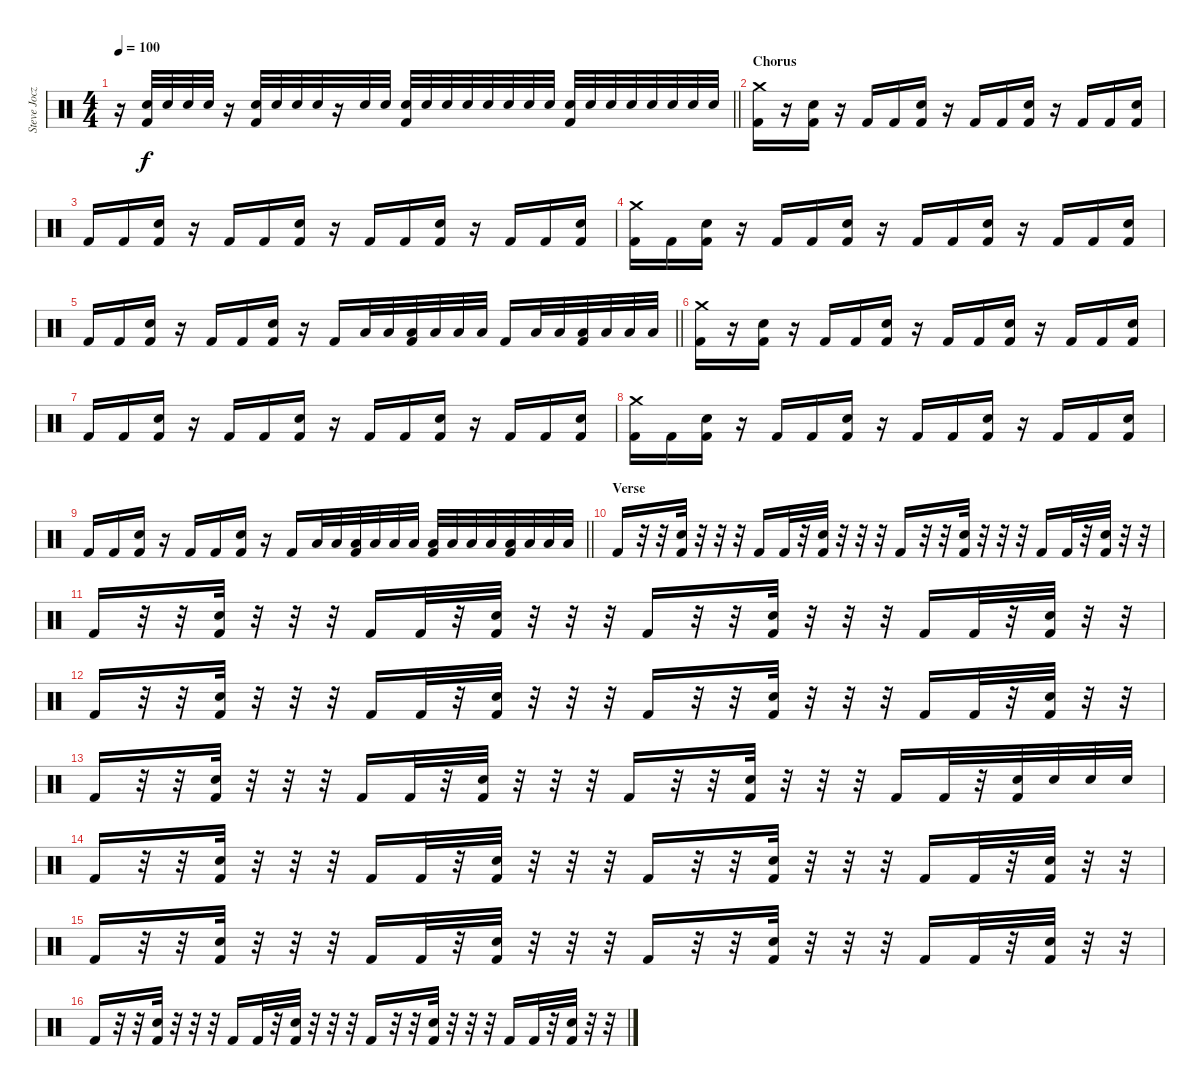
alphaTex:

\track ("Steve Jocz" "Steve Jocz") {instrument percussion}
\staff {score}
\articulation defaults
\ts (4 4)
\tempo 100
\clef neutral
\barLineRight lightlight
\ks c
r.16{dy f} ("Snare (hit) 2" "Kick (hit) 2").32 "Snare (hit) 2".32 "Snare (hit) 2".32 "Snare (hit) 2".32 r.16 ("Snare (hit) 2" "Kick (hit) 2").32 "Snare (hit) 2".32 "Snare (hit) 2".32 "Snare (hit) 2".32 r.16 "Snare (hit) 2".32 "Snare (hit) 2".32 ("Snare (hit) 2" "Kick (hit) 2").32 "Snare (hit) 2".32 "Snare (hit) 2".32 "Snare (hit) 2".32 "Snare (hit) 2".32 "Snare (hit) 2".32 "Snare (hit) 2".32 "Snare (hit) 2".32 ("Snare (hit) 2" "Kick (hit) 2").32 "Snare (hit) 2".32 "Snare (hit) 2".32 "Snare (hit) 2".32 "Snare (hit) 2".32 "Snare (hit) 2".32 "Snare (hit) 2".32 "Snare (hit) 2".32 |
\section ("" "Chorus")
("Crash medium (hit)" "Kick (hit) 2").16 r.16 ("Snare (hit) 2" "Kick (hit) 2").16 r.16 "Kick (hit) 2".16 "Kick (hit) 2".16 ("Snare (hit) 2" "Kick (hit) 2").16 r.16 "Kick (hit) 2".16 "Kick (hit) 2".16 ("Snare (hit) 2" "Kick (hit) 2").16 r.16 "Kick (hit) 2".16 "Kick (hit) 2".16 ("Snare (hit) 2" "Kick (hit) 2").16 |
"Kick (hit) 2".16 "Kick (hit) 2".16 ("Snare (hit) 2" "Kick (hit) 2").16 r.16 "Kick (hit) 2".16 "Kick (hit) 2".16 ("Snare (hit) 2" "Kick (hit) 2").16 r.16 "Kick (hit) 2".16 "Kick (hit) 2".16 ("Snare (hit) 2" "Kick (hit) 2").16 r.16 "Kick (hit) 2".16 "Kick (hit) 2".16 ("Snare (hit) 2" "Kick (hit) 2").16 |
("Crash medium (hit)" "Kick (hit) 2").16 "Kick (hit) 2".16 ("Snare (hit) 2" "Kick (hit) 2").16 r.16 "Kick (hit) 2".16 "Kick (hit) 2".16 ("Snare (hit) 2" "Kick (hit) 2").16 r.16 "Kick (hit) 2".16 "Kick (hit) 2".16 ("Snare (hit) 2" "Kick (hit) 2").16 r.16 "Kick (hit) 2".16 "Kick (hit) 2".16 ("Snare (hit) 2" "Kick (hit) 2").16 |
\barLineRight lightlight "Kick (hit) 2".16 "Kick (hit) 2".16
("Snare (hit) 2" "Kick (hit) 2").16 r.16 "Kick (hit) 2".16 "Kick (hit) 2".16 ("Snare (hit) 2" "Kick (hit) 2").16 r.16 "Kick (hit) 2".16 "Low Tom (hit)".32 "Low Tom (hit)".32 ("Low Tom (hit)" "Kick (hit) 2").32 "Low Tom (hit)".32 "Low Tom (hit)".32 "Low Tom (hit)".32 "Kick (hit) 2".16 "Low Tom (hit)".32 "Low Tom (hit)".32 ("Low Tom (hit)" "Kick (hit) 2").32 "Low Tom (hit)".32 "Low Tom (hit)".32 "Low Tom (hit)".32 |
("Crash medium (hit)" "Kick (hit) 2").16 r.16 ("Snare (hit) 2" "Kick (hit) 2").16 r.16 "Kick (hit) 2".16 "Kick (hit) 2".16 ("Snare (hit) 2" "Kick (hit) 2").16 r.16 "Kick (hit) 2".16 "Kick (hit) 2".16 ("Snare (hit) 2" "Kick (hit) 2").16 r.16 "Kick (hit) 2".16 "Kick (hit) 2".16 ("Snare (hit) 2" "Kick (hit) 2").16 |
"Kick (hit) 2".16 "Kick (hit) 2".16 ("Snare (hit) 2" "Kick (hit) 2").16 r.16 "Kick (hit) 2".16 "Kick (hit) 2".16 ("Snare (hit) 2" "Kick (hit) 2").16 r.16 "Kick (hit) 2".16 "Kick (hit) 2".16 ("Snare (hit) 2" "Kick (hit) 2").16 r.16 "Kick (hit) 2".16 "Kick (hit) 2".16 ("Snare (hit) 2" "Kick (hit) 2").16 |
("Crash medium (hit)" "Kick (hit) 2").16 "Kick (hit) 2".16 ("Snare (hit) 2" "Kick (hit) 2").16 r.16 "Kick (hit) 2".16 "Kick (hit) 2".16 ("Snare (hit) 2" "Kick (hit) 2").16 r.16 "Kick (hit) 2".16 "Kick (hit) 2".16 ("Snare (hit) 2" "Kick (hit) 2").16 r.16 "Kick (hit) 2".16 "Kick (hit) 2".16 ("Snare (hit) 2" "Kick (hit) 2").16 |
\barLineRight lightlight "Kick (hit) 2".16 "Kick (hit) 2".16
("Snare (hit) 2" "Kick (hit) 2").16 r.16 "Kick (hit) 2".16 "Kick (hit) 2".16 ("Snare (hit) 2" "Kick (hit) 2").16 r.16 "Kick (hit) 2".16 "Low Tom (hit)".32 "Low Tom (hit)".32 ("Low Tom (hit)" "Kick (hit) 2").32 "Low Tom (hit)".32 "Low Tom (hit)".32 "Low Tom (hit)".32 ("Low Floor Tom (hit)" "Kick (hit) 2").32 "Low Floor Tom (hit)".32 "Low Floor Tom (hit)".32 "Low Floor Tom (hit)".32 ("Low Floor Tom (hit)" "Kick (hit) 2").32 "Low Floor Tom (hit)".32 "Low Floor Tom (hit)".32 "Low Floor Tom (hit)".32 |
\section ("" "Verse")
"Kick (hit) 2".16 r.32 r.32 ("Snare (hit) 2" "Kick (hit) 2").32 r.32 r.32 r.32 "Kick (hit) 2".16 "Kick (hit) 2".32 r.32 ("Snare (hit) 2" "Kick (hit) 2").32 r.32 r.32 r.32 "Kick (hit) 2".16 r.32 r.32 ("Snare (hit) 2" "Kick (hit) 2").32 r.32 r.32 r.32 "Kick (hit) 2".16 "Kick (hit) 2".32 r.32 ("Snare (hit) 2" "Kick (hit) 2").32 r.32 r.32 |
"Kick (hit) 2".16 r.32 r.32 ("Snare (hit) 2" "Kick (hit) 2").32 r.32 r.32 r.32 "Kick (hit) 2".16 "Kick (hit) 2".32 r.32 ("Snare (hit) 2" "Kick (hit) 2").32 r.32 r.32 r.32 "Kick (hit) 2".16 r.32 r.32 ("Snare (hit) 2" "Kick (hit) 2").32 r.32 r.32 r.32 "Kick (hit) 2".16 "Kick (hit) 2".32 r.32 ("Snare (hit) 2" "Kick (hit) 2").32 r.32 r.32 |
"Kick (hit) 2".16 r.32 r.32 ("Snare (hit) 2" "Kick (hit) 2").32 r.32 r.32 r.32 "Kick (hit) 2".16 "Kick (hit) 2".32 r.32 ("Snare (hit) 2" "Kick (hit) 2").32 r.32 r.32 r.32 "Kick (hit) 2".16 r.32 r.32 ("Snare (hit) 2" "Kick (hit) 2").32 r.32 r.32 r.32 "Kick (hit) 2".16 "Kick (hit) 2".32 r.32 ("Snare (hit) 2" "Kick (hit) 2").32 r.32 r.32 |
"Kick (hit) 2".16 r.32 r.32 ("Snare (hit) 2" "Kick (hit) 2").32 r.32 r.32 r.32 "Kick (hit) 2".16 "Kick (hit) 2".32 r.32 ("Snare (hit) 2" "Kick (hit) 2").32 r.32 r.32 r.32 "Kick (hit) 2".16 r.32 r.32 ("Snare (hit) 2" "Kick (hit) 2").32 r.32 r.32 r.32 "Kick (hit) 2".16 "Kick (hit) 2".32 r.32 ("Snare (hit) 2" "Kick (hit) 2").32 "Snare (hit) 2".32 "Snare (hit) 2".32 "Snare (hit) 2".32 |
"Kick (hit) 2".16 r.32 r.32 ("Snare (hit) 2" "Kick (hit) 2").32 r.32 r.32 r.32 "Kick (hit) 2".16 "Kick (hit) 2".32 r.32 ("Snare (hit) 2" "Kick (hit) 2").32 r.32 r.32 r.32 "Kick (hit) 2".16 r.32 r.32 ("Snare (hit) 2" "Kick (hit) 2").32 r.32 r.32 r.32 "Kick (hit) 2".16 "Kick (hit) 2".32 r.32 ("Snare (hit) 2" "Kick (hit) 2").32 r.32 r.32 |
"Kick (hit) 2".16 r.32 r.32 ("Snare (hit) 2" "Kick (hit) 2").32 r.32 r.32 r.32 "Kick (hit) 2".16 "Kick (hit) 2".32 r.32 ("Snare (hit) 2" "Kick (hit) 2").32 r.32 r.32 r.32 "Kick (hit) 2".16 r.32 r.32 ("Snare (hit) 2" "Kick (hit) 2").32 r.32 r.32 r.32 "Kick (hit) 2".16 "Kick (hit) 2".32 r.32 ("Snare (hit) 2" "Kick (hit) 2").32 r.32 r.32 |
"Kick (hit) 2".16 r.32 r.32 ("Snare (hit) 2" "Kick (hit) 2").32 r.32 r.32 r.32 "Kick (hit) 2".16 "Kick (hit) 2".32 r.32 ("Snare (hit) 2" "Kick (hit) 2").32 r.32 r.32 r.32 "Kick (hit) 2".16 r.32 r.32 ("Snare (hit) 2" "Kick (hit) 2").32 r.32 r.32 r.32 "Kick (hit) 2".16 "Kick (hit) 2".32 r.32 ("Snare (hit) 2" "Kick (hit) 2").32 r.32 r.32
